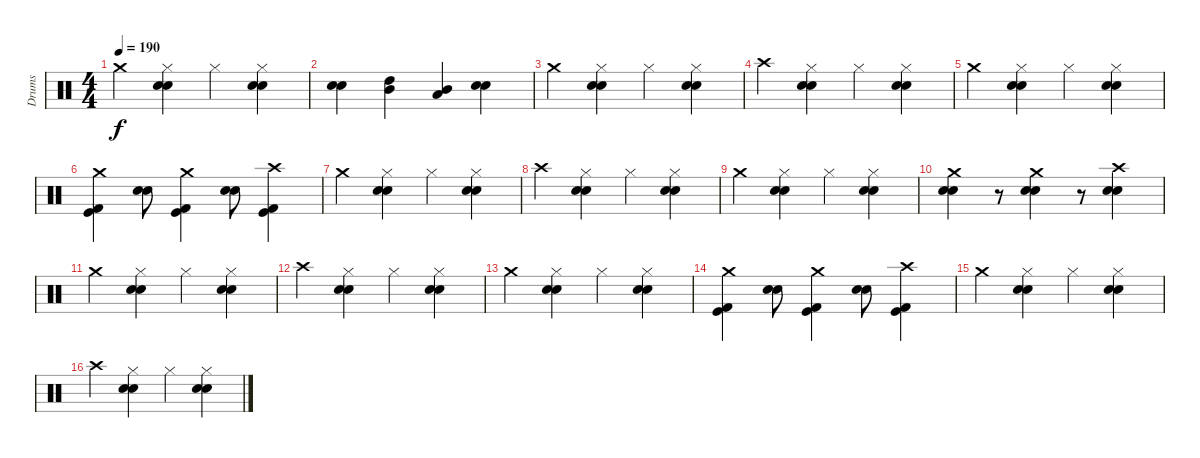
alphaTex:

\track ("Drums" "Drums") {instrument percussion}
\staff {score}
\articulation defaults
\ts (4 4)
\tempo 190
\clef neutral
\ks c "Crash medium (hit)".4{dy f}
("Hi-Hat (closed)" "Electric Snare (hit)" "Snare (hit) 2").4 "Hi-Hat (closed)".4 ("Hi-Hat (closed)" "Electric Snare (hit)" "Snare (hit) 2").4 |
("Electric Snare (hit)" "Snare (hit) 2").4{bd 120} ("High Tom (hit)" "Mid Tom (hit)").4{bd 120} ("Mid Tom (hit)" "Low Tom (hit)").4{bd 120} ("Electric Snare (hit)" "Snare (hit) 2").4{bd 120} |
"Crash medium (hit)".4 ("Hi-Hat (closed)" "Electric Snare (hit)" "Snare (hit) 2").4 "Hi-Hat (closed)".4 ("Hi-Hat (closed)" "Electric Snare (hit)" "Snare (hit) 2").4 |
"Crash high (hit)".4 ("Hi-Hat (closed)" "Electric Snare (hit)" "Snare (hit) 2").4 "Hi-Hat (closed)".4 ("Hi-Hat (closed)" "Electric Snare (hit)" "Snare (hit) 2").4 |
"Crash medium (hit)".4 ("Hi-Hat (closed)" "Electric Snare (hit)" "Snare (hit) 2").4 "Hi-Hat (closed)".4 ("Hi-Hat (closed)" "Electric Snare (hit)" "Snare (hit) 2").4 |
("Crash medium (hit)" "Kick (hit) 2" "Kick (hit)").4 ("Electric Snare (hit)" "Snare (hit) 2").8 ("Crash medium (hit)" "Kick (hit) 2" "Kick (hit)").4 ("Electric Snare (hit)" "Snare (hit) 2").8 ("Crash high (hit)" "Kick (hit) 2" "Kick (hit)").4 |
"Crash medium (hit)".4 ("Hi-Hat (closed)" "Electric Snare (hit)" "Snare (hit) 2").4 "Hi-Hat (closed)".4 ("Hi-Hat (closed)" "Electric Snare (hit)" "Snare (hit) 2").4 |
"Crash high (hit)".4 ("Hi-Hat (closed)" "Electric Snare (hit)" "Snare (hit) 2").4 "Hi-Hat (closed)".4 ("Hi-Hat (closed)" "Electric Snare (hit)" "Snare (hit) 2").4 |
"Crash medium (hit)".4 ("Hi-Hat (closed)" "Electric Snare (hit)" "Snare (hit) 2").4 "Hi-Hat (closed)".4 ("Hi-Hat (closed)" "Electric Snare (hit)" "Snare (hit) 2").4 |
("Crash medium (hit)" "Electric Snare (hit)" "Snare (hit) 2").4 r.8 ("Crash medium (hit)" "Electric Snare (hit)" "Snare (hit) 2").4 r.8 ("Crash high (hit)" "Electric Snare (hit)" "Snare (hit) 2").4 |
"Crash medium (hit)".4 ("Hi-Hat (closed)" "Electric Snare (hit)" "Snare (hit) 2").4 "Hi-Hat (closed)".4 ("Hi-Hat (closed)" "Electric Snare (hit)" "Snare (hit) 2").4 |
"Crash high (hit)".4 ("Hi-Hat (closed)" "Electric Snare (hit)" "Snare (hit) 2").4 "Hi-Hat (closed)".4 ("Hi-Hat (closed)" "Electric Snare (hit)" "Snare (hit) 2").4 |
"Crash medium (hit)".4 ("Hi-Hat (closed)" "Electric Snare (hit)" "Snare (hit) 2").4 "Hi-Hat (closed)".4 ("Hi-Hat (closed)" "Electric Snare (hit)" "Snare (hit) 2").4 |
("Crash medium (hit)" "Kick (hit) 2" "Kick (hit)").4 ("Electric Snare (hit)" "Snare (hit) 2").8 ("Crash medium (hit)" "Kick (hit) 2" "Kick (hit)").4 ("Electric Snare (hit)" "Snare (hit) 2").8 ("Crash high (hit)" "Kick (hit) 2" "Kick (hit)").4 |
"Crash medium (hit)".4 ("Hi-Hat (closed)" "Electric Snare (hit)" "Snare (hit) 2").4 "Hi-Hat (closed)".4 ("Hi-Hat (closed)" "Electric Snare (hit)" "Snare (hit) 2").4 |
"Crash high (hit)".4 ("Hi-Hat (closed)" "Electric Snare (hit)" "Snare (hit) 2").4 "Hi-Hat (closed)".4 ("Hi-Hat (closed)" "Electric Snare (hit)" "Snare (hit) 2").4
